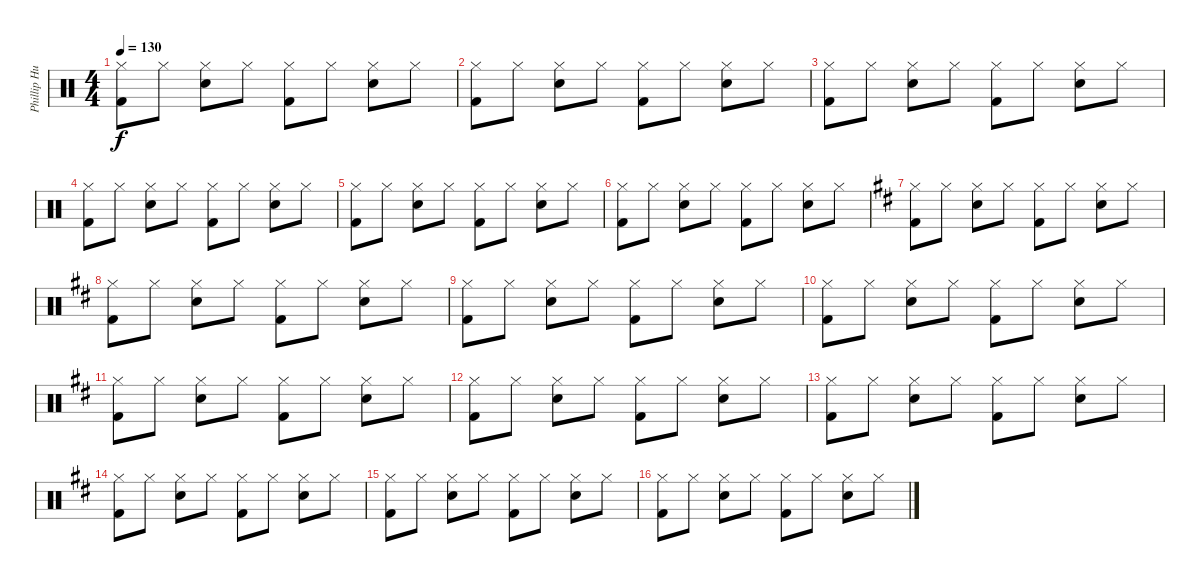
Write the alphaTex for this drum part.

\track ("Phillip Hungh" "Phillip Hu") {instrument percussion}
\staff {score}
\articulation defaults
\ts (4 4)
\tempo 130
\clef neutral
\ks c
("Hi-Hat (closed)" "Kick (hit) 2").8{dy f} "Hi-Hat (closed)".8 ("Hi-Hat (closed)" "Snare (hit) 2").8 "Hi-Hat (closed)".8 ("Hi-Hat (closed)" "Kick (hit) 2").8 "Hi-Hat (closed)".8 ("Hi-Hat (closed)" "Snare (hit) 2").8 "Hi-Hat (closed)".8 |
("Hi-Hat (closed)" "Kick (hit) 2").8 "Hi-Hat (closed)".8 ("Hi-Hat (closed)" "Snare (hit) 2").8 "Hi-Hat (closed)".8 ("Hi-Hat (closed)" "Kick (hit) 2").8 "Hi-Hat (closed)".8 ("Hi-Hat (closed)" "Snare (hit) 2").8 "Hi-Hat (closed)".8 |
("Hi-Hat (closed)" "Kick (hit) 2").8 "Hi-Hat (closed)".8 ("Hi-Hat (closed)" "Snare (hit) 2").8 "Hi-Hat (closed)".8 ("Hi-Hat (closed)" "Kick (hit) 2").8 "Hi-Hat (closed)".8 ("Hi-Hat (closed)" "Snare (hit) 2").8 "Hi-Hat (closed)".8 |
("Hi-Hat (closed)" "Kick (hit) 2").8 "Hi-Hat (closed)".8 ("Hi-Hat (closed)" "Snare (hit) 2").8 "Hi-Hat (closed)".8 ("Hi-Hat (closed)" "Kick (hit) 2").8 "Hi-Hat (closed)".8 ("Hi-Hat (closed)" "Snare (hit) 2").8 "Hi-Hat (closed)".8 |
("Hi-Hat (closed)" "Kick (hit) 2").8 "Hi-Hat (closed)".8 ("Hi-Hat (closed)" "Snare (hit) 2").8 "Hi-Hat (closed)".8 ("Hi-Hat (closed)" "Kick (hit) 2").8 "Hi-Hat (closed)".8 ("Hi-Hat (closed)" "Snare (hit) 2").8 "Hi-Hat (closed)".8 |
("Hi-Hat (closed)" "Kick (hit) 2").8 "Hi-Hat (closed)".8 ("Hi-Hat (closed)" "Snare (hit) 2").8 "Hi-Hat (closed)".8 ("Hi-Hat (closed)" "Kick (hit) 2").8 "Hi-Hat (closed)".8 ("Hi-Hat (closed)" "Snare (hit) 2").8 "Hi-Hat (closed)".8 |
\ks d
("Hi-Hat (closed)" "Kick (hit) 2").8 "Hi-Hat (closed)".8 ("Hi-Hat (closed)" "Snare (hit) 2").8 "Hi-Hat (closed)".8 ("Hi-Hat (closed)" "Kick (hit) 2").8 "Hi-Hat (closed)".8 ("Hi-Hat (closed)" "Snare (hit) 2").8 "Hi-Hat (closed)".8 |
("Hi-Hat (closed)" "Kick (hit) 2").8 "Hi-Hat (closed)".8 ("Hi-Hat (closed)" "Snare (hit) 2").8 "Hi-Hat (closed)".8 ("Hi-Hat (closed)" "Kick (hit) 2").8 "Hi-Hat (closed)".8 ("Hi-Hat (closed)" "Snare (hit) 2").8 "Hi-Hat (closed)".8 |
("Hi-Hat (closed)" "Kick (hit) 2").8 "Hi-Hat (closed)".8 ("Hi-Hat (closed)" "Snare (hit) 2").8 "Hi-Hat (closed)".8 ("Hi-Hat (closed)" "Kick (hit) 2").8 "Hi-Hat (closed)".8 ("Hi-Hat (closed)" "Snare (hit) 2").8 "Hi-Hat (closed)".8 |
("Hi-Hat (closed)" "Kick (hit) 2").8 "Hi-Hat (closed)".8 ("Hi-Hat (closed)" "Snare (hit) 2").8 "Hi-Hat (closed)".8 ("Hi-Hat (closed)" "Kick (hit) 2").8 "Hi-Hat (closed)".8 ("Hi-Hat (closed)" "Snare (hit) 2").8 "Hi-Hat (closed)".8 |
("Hi-Hat (closed)" "Kick (hit) 2").8 "Hi-Hat (closed)".8 ("Hi-Hat (closed)" "Snare (hit) 2").8 "Hi-Hat (closed)".8 ("Hi-Hat (closed)" "Kick (hit) 2").8 "Hi-Hat (closed)".8 ("Hi-Hat (closed)" "Snare (hit) 2").8 "Hi-Hat (closed)".8 |
("Hi-Hat (closed)" "Kick (hit) 2").8 "Hi-Hat (closed)".8 ("Hi-Hat (closed)" "Snare (hit) 2").8 "Hi-Hat (closed)".8 ("Hi-Hat (closed)" "Kick (hit) 2").8 "Hi-Hat (closed)".8 ("Hi-Hat (closed)" "Snare (hit) 2").8 "Hi-Hat (closed)".8 |
("Hi-Hat (closed)" "Kick (hit) 2").8 "Hi-Hat (closed)".8 ("Hi-Hat (closed)" "Snare (hit) 2").8 "Hi-Hat (closed)".8 ("Hi-Hat (closed)" "Kick (hit) 2").8 "Hi-Hat (closed)".8 ("Hi-Hat (closed)" "Snare (hit) 2").8 "Hi-Hat (closed)".8 |
("Hi-Hat (closed)" "Kick (hit) 2").8 "Hi-Hat (closed)".8 ("Hi-Hat (closed)" "Snare (hit) 2").8 "Hi-Hat (closed)".8 ("Hi-Hat (closed)" "Kick (hit) 2").8 "Hi-Hat (closed)".8 ("Hi-Hat (closed)" "Snare (hit) 2").8 "Hi-Hat (closed)".8 |
("Hi-Hat (closed)" "Kick (hit) 2").8 "Hi-Hat (closed)".8 ("Hi-Hat (closed)" "Snare (hit) 2").8 "Hi-Hat (closed)".8 ("Hi-Hat (closed)" "Kick (hit) 2").8 "Hi-Hat (closed)".8 ("Hi-Hat (closed)" "Snare (hit) 2").8 "Hi-Hat (closed)".8 |
("Hi-Hat (closed)" "Kick (hit) 2").8 "Hi-Hat (closed)".8 ("Hi-Hat (closed)" "Snare (hit) 2").8 "Hi-Hat (closed)".8 ("Hi-Hat (closed)" "Kick (hit) 2").8 "Hi-Hat (closed)".8 ("Hi-Hat (closed)" "Snare (hit) 2").8 "Hi-Hat (closed)".8
